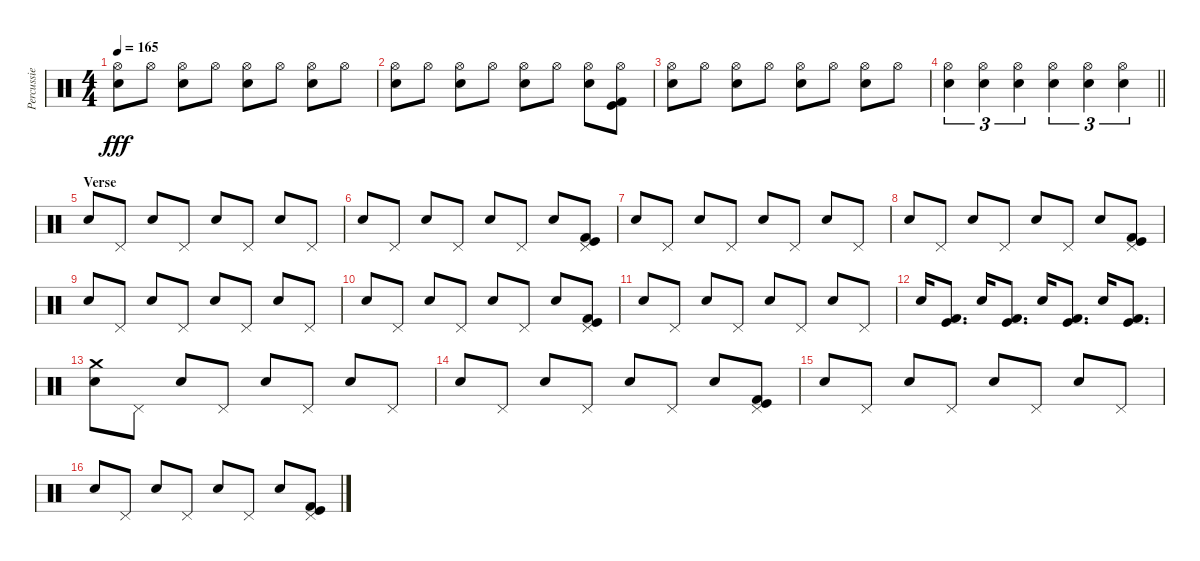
\track ("Percussie" "Percussie") {instrument percussion}
\staff {score}
\articulation defaults
\ts (4 4)
\tempo 165
\clef neutral
\ks c
("Hi-Hat (open)" "Snare (hit) 2").8{dy fff} "Hi-Hat (open)".8 ("Hi-Hat (open)" "Snare (hit) 2").8 "Hi-Hat (open)".8 ("Hi-Hat (open)" "Snare (hit) 2").8 "Hi-Hat (open)".8 ("Hi-Hat (open)" "Snare (hit) 2").8 "Hi-Hat (open)".8 |
("Hi-Hat (open)" "Snare (hit) 2").8 "Hi-Hat (open)".8 ("Hi-Hat (open)" "Snare (hit) 2").8 "Hi-Hat (open)".8 ("Hi-Hat (open)" "Snare (hit) 2").8 "Hi-Hat (open)".8 ("Hi-Hat (open)" "Snare (hit) 2").8 ("Hi-Hat (open)" "Kick (hit)" "Kick (hit) 2").8 |
("Hi-Hat (open)" "Snare (hit) 2").8 "Hi-Hat (open)".8 ("Hi-Hat (open)" "Snare (hit) 2").8 "Hi-Hat (open)".8 ("Hi-Hat (open)" "Snare (hit) 2").8 "Hi-Hat (open)".8 ("Hi-Hat (open)" "Snare (hit) 2").8 "Hi-Hat (open)".8 |
\barLineRight lightlight
("Hi-Hat (open)" "Snare (hit) 2").4{tu (3 2)} ("Hi-Hat (open)" "Snare (hit) 2").4{tu (3 2)} ("Hi-Hat (open)" "Snare (hit) 2").4{tu (3 2)} ("Hi-Hat (open)" "Snare (hit) 2").4{tu (3 2)} ("Hi-Hat (open)" "Snare (hit) 2").4{tu (3 2)} ("Hi-Hat (open)" "Snare (hit) 2").4{tu (3 2)} |
\section ("" "Verse")
"Snare (hit) 2".8 "Pedal Hi-Hat (hit)".8 "Snare (hit) 2".8 "Pedal Hi-Hat (hit)".8 "Snare (hit) 2".8 "Pedal Hi-Hat (hit)".8 "Snare (hit) 2".8 "Pedal Hi-Hat (hit)".8 |
"Snare (hit) 2".8 "Pedal Hi-Hat (hit)".8 "Snare (hit) 2".8 "Pedal Hi-Hat (hit)".8 "Snare (hit) 2".8 "Pedal Hi-Hat (hit)".8 "Snare (hit) 2".8 ("Pedal Hi-Hat (hit)" "Kick (hit)" "Kick (hit) 2").8 |
"Snare (hit) 2".8 "Pedal Hi-Hat (hit)".8 "Snare (hit) 2".8 "Pedal Hi-Hat (hit)".8 "Snare (hit) 2".8 "Pedal Hi-Hat (hit)".8 "Snare (hit) 2".8 "Pedal Hi-Hat (hit)".8 |
"Snare (hit) 2".8 "Pedal Hi-Hat (hit)".8 "Snare (hit) 2".8 "Pedal Hi-Hat (hit)".8 "Snare (hit) 2".8 "Pedal Hi-Hat (hit)".8 "Snare (hit) 2".8 ("Pedal Hi-Hat (hit)" "Kick (hit)" "Kick (hit) 2").8 |
"Snare (hit) 2".8 "Pedal Hi-Hat (hit)".8 "Snare (hit) 2".8 "Pedal Hi-Hat (hit)".8 "Snare (hit) 2".8 "Pedal Hi-Hat (hit)".8 "Snare (hit) 2".8 "Pedal Hi-Hat (hit)".8 |
"Snare (hit) 2".8 "Pedal Hi-Hat (hit)".8 "Snare (hit) 2".8 "Pedal Hi-Hat (hit)".8 "Snare (hit) 2".8 "Pedal Hi-Hat (hit)".8 "Snare (hit) 2".8 ("Pedal Hi-Hat (hit)" "Kick (hit)" "Kick (hit) 2").8 |
"Snare (hit) 2".8 "Pedal Hi-Hat (hit)".8 "Snare (hit) 2".8 "Pedal Hi-Hat (hit)".8 "Snare (hit) 2".8 "Pedal Hi-Hat (hit)".8 "Snare (hit) 2".8 "Pedal Hi-Hat (hit)".8 |
"Snare (hit) 2".16 ("Kick (hit)" "Kick (hit) 2").8{d} "Snare (hit) 2".16 ("Kick (hit)" "Kick (hit) 2").8{d} "Snare (hit) 2".16 ("Kick (hit)" "Kick (hit) 2").8{d} "Snare (hit) 2".16 ("Kick (hit)" "Kick (hit) 2").8{d} |
("Crash medium (hit)" "Snare (hit) 2").8 "Pedal Hi-Hat (hit)".8 "Snare (hit) 2".8 "Pedal Hi-Hat (hit)".8 "Snare (hit) 2".8 "Pedal Hi-Hat (hit)".8 "Snare (hit) 2".8 "Pedal Hi-Hat (hit)".8 |
"Snare (hit) 2".8 "Pedal Hi-Hat (hit)".8 "Snare (hit) 2".8 "Pedal Hi-Hat (hit)".8 "Snare (hit) 2".8 "Pedal Hi-Hat (hit)".8 "Snare (hit) 2".8 ("Pedal Hi-Hat (hit)" "Kick (hit)" "Kick (hit) 2").8 |
"Snare (hit) 2".8 "Pedal Hi-Hat (hit)".8 "Snare (hit) 2".8 "Pedal Hi-Hat (hit)".8 "Snare (hit) 2".8 "Pedal Hi-Hat (hit)".8 "Snare (hit) 2".8 "Pedal Hi-Hat (hit)".8 |
"Snare (hit) 2".8 "Pedal Hi-Hat (hit)".8 "Snare (hit) 2".8 "Pedal Hi-Hat (hit)".8 "Snare (hit) 2".8 "Pedal Hi-Hat (hit)".8 "Snare (hit) 2".8 ("Pedal Hi-Hat (hit)" "Kick (hit)" "Kick (hit) 2").8
